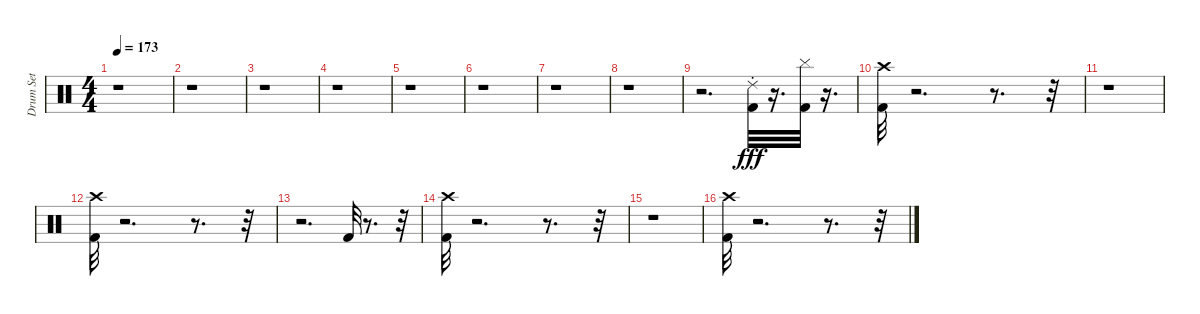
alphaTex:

\track ("Drum Set" "Drum Set") {instrument percussion}
\staff {score}
\articulation defaults
\ts (4 4)
\tempo 173
\clef neutral
\ks c
r.1{dy fff} |
r.1 |
r.1 |
r.1 |
r.1 |
r.1 |
r.1 |
r.1 |
r.2{d} ("Ride (choke) 2" "Kick (hit) 2").32 r.16{d} ("Cymbal (hit)" "Kick (hit) 2").32 r.16{d} |
("Crash high (hit)" "Kick (hit) 2").32 r.2{d} r.8{d} r.32 |
r.1 |
("Crash high (hit)" "Kick (hit) 2").32 r.2{d} r.8{d} r.32 |
r.2{d} "Kick (hit) 2".32 r.8{d} r.32 |
("Kick (hit) 2" "Crash high (hit)").32 r.2{d} r.8{d} r.32 |
r.1 |
("Kick (hit) 2" "Crash high (hit)").32 r.2{d} r.8{d} r.32
